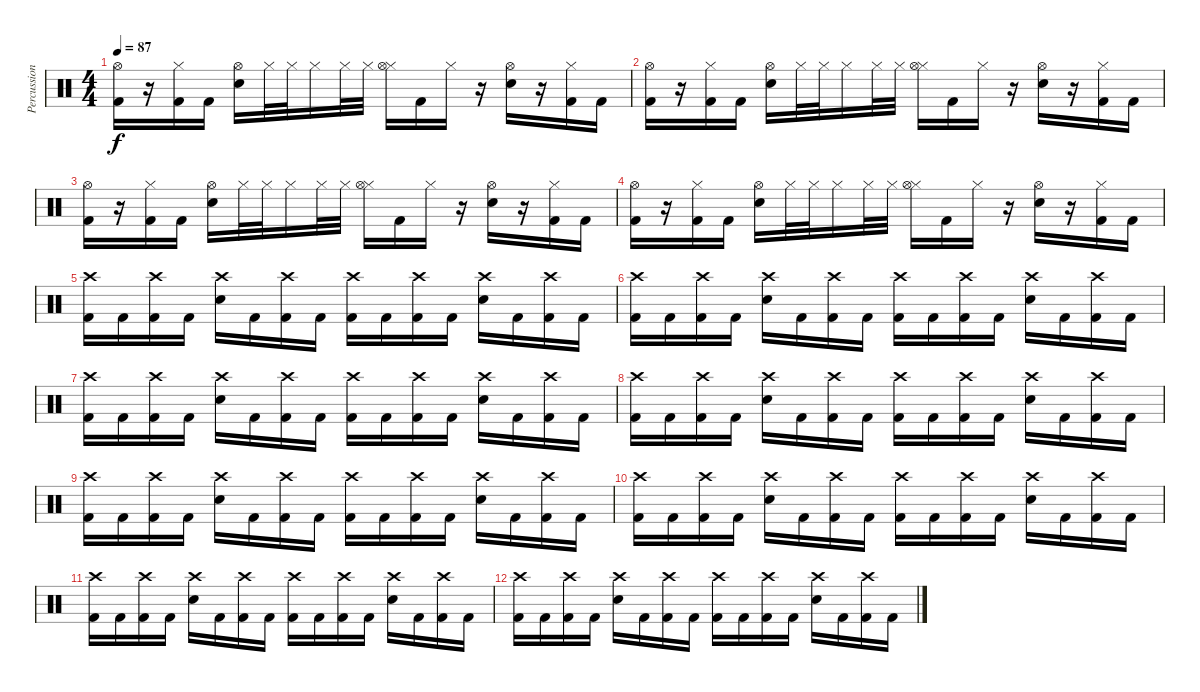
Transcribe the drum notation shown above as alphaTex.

\track ("Percussion" "Percussion") {instrument percussion}
\staff {score}
\articulation defaults
\ts (4 4)
\tempo 87
\clef neutral
\ks c
("Hi-Hat (open)" "Kick (hit) 2").16{dy f} r.16 ("Hi-Hat (closed)" "Kick (hit) 2").16 "Kick (hit) 2".16 ("Hi-Hat (open)" "Electric Snare (hit)").16 "Hi-Hat (closed)".32 "Hi-Hat (closed)".32 "Hi-Hat (closed)".16 "Hi-Hat (closed)".32 "Hi-Hat (closed)".32 ("Hi-Hat (closed)" "Hi-Hat (open)").16 "Kick (hit) 2".16 "Hi-Hat (closed)".16 r.16 ("Hi-Hat (open)" "Electric Snare (hit)").16 r.16 ("Hi-Hat (closed)" "Kick (hit) 2").16 "Kick (hit) 2".16 |
("Hi-Hat (open)" "Kick (hit) 2").16 r.16 ("Hi-Hat (closed)" "Kick (hit) 2").16 "Kick (hit) 2".16 ("Hi-Hat (open)" "Electric Snare (hit)").16 "Hi-Hat (closed)".32 "Hi-Hat (closed)".32 "Hi-Hat (closed)".16 "Hi-Hat (closed)".32 "Hi-Hat (closed)".32 ("Hi-Hat (closed)" "Hi-Hat (open)").16 "Kick (hit) 2".16 "Hi-Hat (closed)".16 r.16 ("Hi-Hat (open)" "Electric Snare (hit)").16 r.16 ("Hi-Hat (closed)" "Kick (hit) 2").16 "Kick (hit) 2".16 |
("Hi-Hat (open)" "Kick (hit) 2").16 r.16 ("Hi-Hat (closed)" "Kick (hit) 2").16 "Kick (hit) 2".16 ("Hi-Hat (open)" "Electric Snare (hit)").16 "Hi-Hat (closed)".32 "Hi-Hat (closed)".32 "Hi-Hat (closed)".16 "Hi-Hat (closed)".32 "Hi-Hat (closed)".32 ("Hi-Hat (closed)" "Hi-Hat (open)").16 "Kick (hit) 2".16 "Hi-Hat (closed)".16 r.16 ("Hi-Hat (open)" "Electric Snare (hit)").16 r.16 ("Hi-Hat (closed)" "Kick (hit) 2").16 "Kick (hit) 2".16 |
("Hi-Hat (open)" "Kick (hit) 2").16 r.16 ("Hi-Hat (closed)" "Kick (hit) 2").16 "Kick (hit) 2".16 ("Hi-Hat (open)" "Electric Snare (hit)").16 "Hi-Hat (closed)".32 "Hi-Hat (closed)".32 "Hi-Hat (closed)".16 "Hi-Hat (closed)".32 "Hi-Hat (closed)".32 ("Hi-Hat (closed)" "Hi-Hat (open)").16 "Kick (hit) 2".16 "Hi-Hat (closed)".16 r.16 ("Hi-Hat (open)" "Electric Snare (hit)").16 r.16 ("Hi-Hat (closed)" "Kick (hit) 2").16 "Kick (hit) 2".16 |
("Crash high (hit)" "Kick (hit) 2").16 "Kick (hit) 2".16 ("Crash high (hit)" "Kick (hit) 2").16 "Kick (hit) 2".16 ("Crash high (hit)" "Electric Snare (hit)").16 "Kick (hit) 2".16 ("Crash high (hit)" "Kick (hit) 2").16 "Kick (hit) 2".16 ("Crash high (hit)" "Kick (hit) 2").16 "Kick (hit) 2".16 ("Crash high (hit)" "Kick (hit) 2").16 "Kick (hit) 2".16 ("Crash high (hit)" "Electric Snare (hit)").16 "Kick (hit) 2".16 ("Crash high (hit)" "Kick (hit) 2").16 "Kick (hit) 2".16 |
("Crash high (hit)" "Kick (hit) 2").16 "Kick (hit) 2".16 ("Crash high (hit)" "Kick (hit) 2").16 "Kick (hit) 2".16 ("Crash high (hit)" "Electric Snare (hit)").16 "Kick (hit) 2".16 ("Crash high (hit)" "Kick (hit) 2").16 "Kick (hit) 2".16 ("Crash high (hit)" "Kick (hit) 2").16 "Kick (hit) 2".16 ("Crash high (hit)" "Kick (hit) 2").16 "Kick (hit) 2".16 ("Crash high (hit)" "Electric Snare (hit)").16 "Kick (hit) 2".16 ("Crash high (hit)" "Kick (hit) 2").16 "Kick (hit) 2".16 |
("Crash high (hit)" "Kick (hit) 2").16 "Kick (hit) 2".16 ("Crash high (hit)" "Kick (hit) 2").16 "Kick (hit) 2".16 ("Crash high (hit)" "Electric Snare (hit)").16 "Kick (hit) 2".16 ("Crash high (hit)" "Kick (hit) 2").16 "Kick (hit) 2".16 ("Crash high (hit)" "Kick (hit) 2").16 "Kick (hit) 2".16 ("Crash high (hit)" "Kick (hit) 2").16 "Kick (hit) 2".16 ("Crash high (hit)" "Electric Snare (hit)").16 "Kick (hit) 2".16 ("Crash high (hit)" "Kick (hit) 2").16 "Kick (hit) 2".16 |
("Crash high (hit)" "Kick (hit) 2").16 "Kick (hit) 2".16 ("Crash high (hit)" "Kick (hit) 2").16 "Kick (hit) 2".16 ("Crash high (hit)" "Electric Snare (hit)").16 "Kick (hit) 2".16 ("Crash high (hit)" "Kick (hit) 2").16 "Kick (hit) 2".16 ("Crash high (hit)" "Kick (hit) 2").16 "Kick (hit) 2".16 ("Crash high (hit)" "Kick (hit) 2").16 "Kick (hit) 2".16 ("Crash high (hit)" "Electric Snare (hit)").16 "Kick (hit) 2".16 ("Crash high (hit)" "Kick (hit) 2").16 "Kick (hit) 2".16 |
("Crash high (hit)" "Kick (hit) 2").16 "Kick (hit) 2".16 ("Crash high (hit)" "Kick (hit) 2").16 "Kick (hit) 2".16 ("Crash high (hit)" "Electric Snare (hit)").16 "Kick (hit) 2".16 ("Crash high (hit)" "Kick (hit) 2").16 "Kick (hit) 2".16 ("Crash high (hit)" "Kick (hit) 2").16 "Kick (hit) 2".16 ("Crash high (hit)" "Kick (hit) 2").16 "Kick (hit) 2".16 ("Crash high (hit)" "Electric Snare (hit)").16 "Kick (hit) 2".16 ("Crash high (hit)" "Kick (hit) 2").16 "Kick (hit) 2".16 |
("Crash high (hit)" "Kick (hit) 2").16 "Kick (hit) 2".16 ("Crash high (hit)" "Kick (hit) 2").16 "Kick (hit) 2".16 ("Crash high (hit)" "Electric Snare (hit)").16 "Kick (hit) 2".16 ("Crash high (hit)" "Kick (hit) 2").16 "Kick (hit) 2".16 ("Crash high (hit)" "Kick (hit) 2").16 "Kick (hit) 2".16 ("Crash high (hit)" "Kick (hit) 2").16 "Kick (hit) 2".16 ("Crash high (hit)" "Electric Snare (hit)").16 "Kick (hit) 2".16 ("Crash high (hit)" "Kick (hit) 2").16 "Kick (hit) 2".16 |
("Crash high (hit)" "Kick (hit) 2").16 "Kick (hit) 2".16 ("Crash high (hit)" "Kick (hit) 2").16 "Kick (hit) 2".16 ("Crash high (hit)" "Electric Snare (hit)").16 "Kick (hit) 2".16 ("Crash high (hit)" "Kick (hit) 2").16 "Kick (hit) 2".16 ("Crash high (hit)" "Kick (hit) 2").16 "Kick (hit) 2".16 ("Crash high (hit)" "Kick (hit) 2").16 "Kick (hit) 2".16 ("Crash high (hit)" "Electric Snare (hit)").16 "Kick (hit) 2".16 ("Crash high (hit)" "Kick (hit) 2").16 "Kick (hit) 2".16 |
("Crash high (hit)" "Kick (hit) 2").16 "Kick (hit) 2".16 ("Crash high (hit)" "Kick (hit) 2").16 "Kick (hit) 2".16 ("Crash high (hit)" "Electric Snare (hit)").16 "Kick (hit) 2".16 ("Crash high (hit)" "Kick (hit) 2").16 "Kick (hit) 2".16 ("Crash high (hit)" "Kick (hit) 2").16 "Kick (hit) 2".16 ("Crash high (hit)" "Kick (hit) 2").16 "Kick (hit) 2".16 ("Crash high (hit)" "Electric Snare (hit)").16 "Kick (hit) 2".16 ("Crash high (hit)" "Kick (hit) 2").16 "Kick (hit) 2".16
